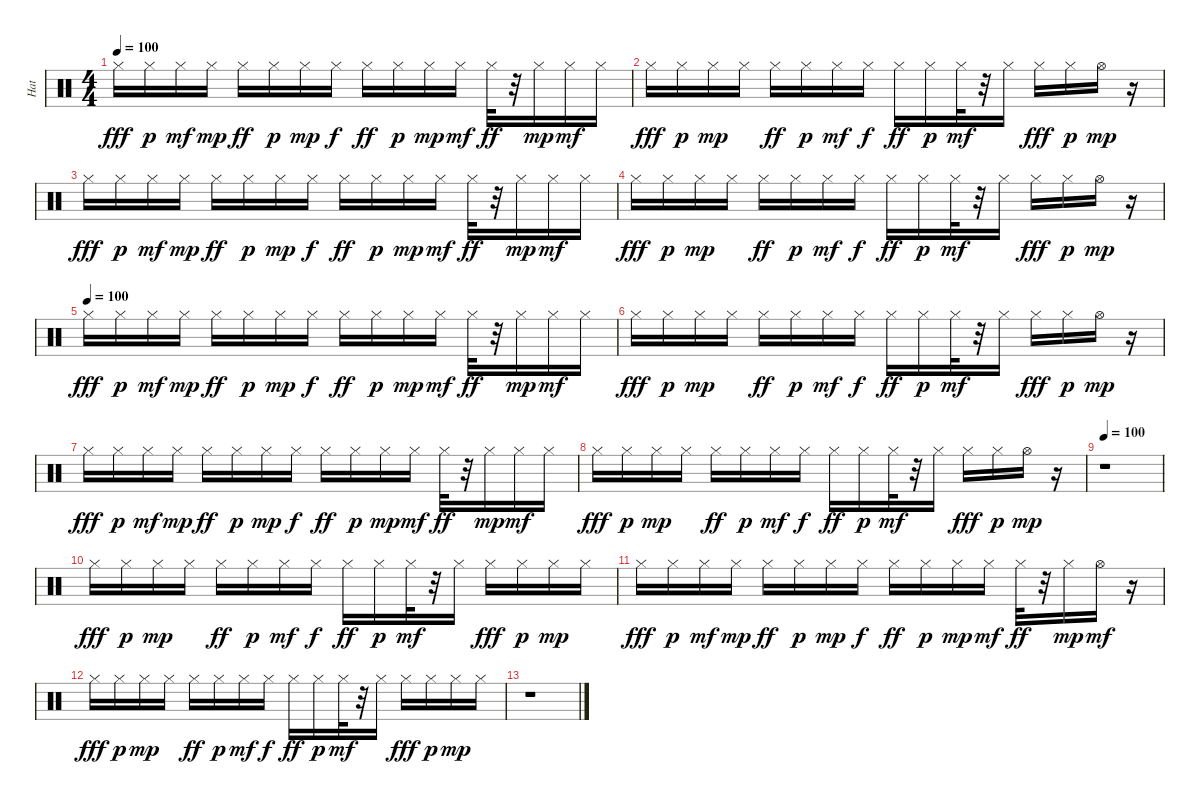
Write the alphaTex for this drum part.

\track ("Hat" "Hat") {instrument percussion}
\staff {score}
\articulation defaults
\ts (4 4)
\tempo 100
\clef neutral
\ks c "Hi-Hat (closed)".16{dy fff} "Hi-Hat (closed)".16{dy p} "Hi-Hat (closed)".16{dy mf} "Hi-Hat (closed)".16{dy mp} "Hi-Hat (closed)".16{dy ff} "Hi-Hat (closed)".16{dy p} "Hi-Hat (closed)".16{dy mp} "Hi-Hat (closed)".16{dy f} "Hi-Hat (closed)".16{dy ff} "Hi-Hat (closed)".16{dy p} "Hi-Hat (closed)".16{dy mp} "Hi-Hat (closed)".16{dy mf} "Hi-Hat (closed)".32{dy ff}
r.32 "Hi-Hat (closed)".16{dy mp} "Hi-Hat (closed)".16{dy mf} "Hi-Hat (closed)".16 |
"Hi-Hat (closed)".16{dy fff} "Hi-Hat (closed)".16{dy p} "Hi-Hat (closed)".16{dy mp} "Hi-Hat (closed)".16 "Hi-Hat (closed)".16{dy ff} "Hi-Hat (closed)".16{dy p} "Hi-Hat (closed)".16{dy mf} "Hi-Hat (closed)".16{dy f} "Hi-Hat (closed)".16{dy ff} "Hi-Hat (closed)".16{dy p} "Hi-Hat (closed)".32{dy mf} r.32 "Hi-Hat (closed)".16 "Hi-Hat (closed)".16{dy fff} "Hi-Hat (closed)".16{dy p} "Hi-Hat (open)".16{dy mp} r.16 |
"Hi-Hat (closed)".16{dy fff} "Hi-Hat (closed)".16{dy p} "Hi-Hat (closed)".16{dy mf} "Hi-Hat (closed)".16{dy mp} "Hi-Hat (closed)".16{dy ff} "Hi-Hat (closed)".16{dy p} "Hi-Hat (closed)".16{dy mp} "Hi-Hat (closed)".16{dy f} "Hi-Hat (closed)".16{dy ff} "Hi-Hat (closed)".16{dy p} "Hi-Hat (closed)".16{dy mp} "Hi-Hat (closed)".16{dy mf} "Hi-Hat (closed)".32{dy ff} r.32 "Hi-Hat (closed)".16{dy mp} "Hi-Hat (closed)".16{dy mf} "Hi-Hat (closed)".16 |
"Hi-Hat (closed)".16{dy fff} "Hi-Hat (closed)".16{dy p} "Hi-Hat (closed)".16{dy mp} "Hi-Hat (closed)".16 "Hi-Hat (closed)".16{dy ff} "Hi-Hat (closed)".16{dy p} "Hi-Hat (closed)".16{dy mf} "Hi-Hat (closed)".16{dy f} "Hi-Hat (closed)".16{dy ff} "Hi-Hat (closed)".16{dy p} "Hi-Hat (closed)".32{dy mf} r.32 "Hi-Hat (closed)".16 "Hi-Hat (closed)".16{dy fff} "Hi-Hat (closed)".16{dy p} "Hi-Hat (open)".16{dy mp} r.16 |
\tempo (100)
"Hi-Hat (closed)".16{dy fff} "Hi-Hat (closed)".16{dy p} "Hi-Hat (closed)".16{dy mf} "Hi-Hat (closed)".16{dy mp} "Hi-Hat (closed)".16{dy ff} "Hi-Hat (closed)".16{dy p} "Hi-Hat (closed)".16{dy mp} "Hi-Hat (closed)".16{dy f} "Hi-Hat (closed)".16{dy ff} "Hi-Hat (closed)".16{dy p} "Hi-Hat (closed)".16{dy mp} "Hi-Hat (closed)".16{dy mf} "Hi-Hat (closed)".32{dy ff} r.32 "Hi-Hat (closed)".16{dy mp} "Hi-Hat (closed)".16{dy mf} "Hi-Hat (closed)".16 |
"Hi-Hat (closed)".16{dy fff} "Hi-Hat (closed)".16{dy p} "Hi-Hat (closed)".16{dy mp} "Hi-Hat (closed)".16 "Hi-Hat (closed)".16{dy ff} "Hi-Hat (closed)".16{dy p} "Hi-Hat (closed)".16{dy mf} "Hi-Hat (closed)".16{dy f} "Hi-Hat (closed)".16{dy ff} "Hi-Hat (closed)".16{dy p} "Hi-Hat (closed)".32{dy mf} r.32 "Hi-Hat (closed)".16 "Hi-Hat (closed)".16{dy fff} "Hi-Hat (closed)".16{dy p} "Hi-Hat (open)".16{dy mp} r.16 |
"Hi-Hat (closed)".16{dy fff} "Hi-Hat (closed)".16{dy p} "Hi-Hat (closed)".16{dy mf} "Hi-Hat (closed)".16{dy mp} "Hi-Hat (closed)".16{dy ff} "Hi-Hat (closed)".16{dy p} "Hi-Hat (closed)".16{dy mp} "Hi-Hat (closed)".16{dy f} "Hi-Hat (closed)".16{dy ff} "Hi-Hat (closed)".16{dy p} "Hi-Hat (closed)".16{dy mp} "Hi-Hat (closed)".16{dy mf} "Hi-Hat (closed)".32{dy ff} r.32 "Hi-Hat (closed)".16{dy mp} "Hi-Hat (closed)".16{dy mf} "Hi-Hat (closed)".16 |
"Hi-Hat (closed)".16{dy fff} "Hi-Hat (closed)".16{dy p} "Hi-Hat (closed)".16{dy mp} "Hi-Hat (closed)".16 "Hi-Hat (closed)".16{dy ff} "Hi-Hat (closed)".16{dy p} "Hi-Hat (closed)".16{dy mf} "Hi-Hat (closed)".16{dy f} "Hi-Hat (closed)".16{dy ff} "Hi-Hat (closed)".16{dy p} "Hi-Hat (closed)".32{dy mf} r.32 "Hi-Hat (closed)".16 "Hi-Hat (closed)".16{dy fff} "Hi-Hat (closed)".16{dy p} "Hi-Hat (open)".16{dy mp} r.16 |
\tempo 100
r.1 |
"Hi-Hat (closed)".16{dy fff volume 12} "Hi-Hat (closed)".16{dy p volume 12} "Hi-Hat (closed)".16{dy mp volume 11} "Hi-Hat (closed)".16{volume 11} "Hi-Hat (closed)".16{dy ff volume 11} "Hi-Hat (closed)".16{dy p volume 11} "Hi-Hat (closed)".16{dy mf volume 11} "Hi-Hat (closed)".16{dy f volume 11} "Hi-Hat (closed)".16{dy ff volume 10} "Hi-Hat (closed)".16{dy p volume 10} "Hi-Hat (closed)".32{dy mf volume 10} r.32 "Hi-Hat (closed)".16{volume 10} "Hi-Hat (closed)".16{dy fff volume 10} "Hi-Hat (closed)".16{dy p volume 10} "Hi-Hat (closed)".16{dy mp volume 10} "Hi-Hat (closed)".16{volume 9} |
"Hi-Hat (closed)".16{dy fff volume 9} "Hi-Hat (closed)".16{dy p volume 9} "Hi-Hat (closed)".16{dy mf volume 9} "Hi-Hat (closed)".16{dy mp volume 9} "Hi-Hat (closed)".16{dy ff volume 9} "Hi-Hat (closed)".16{dy p volume 8} "Hi-Hat (closed)".16{dy mp volume 8} "Hi-Hat (closed)".16{dy f volume 8} "Hi-Hat (closed)".16{dy ff volume 8} "Hi-Hat (closed)".16{dy p volume 8} "Hi-Hat (closed)".16{dy mp volume 8} "Hi-Hat (closed)".16{dy mf volume 8} "Hi-Hat (closed)".32{dy ff volume 8} r.32 "Hi-Hat (closed)".16{dy mp volume 7} "Hi-Hat (open)".16{dy mf volume 7} r.16 |
"Hi-Hat (closed)".16{dy fff volume 7} "Hi-Hat (closed)".16{dy p volume 7} "Hi-Hat (closed)".16{dy mp volume 6} "Hi-Hat (closed)".16{volume 6} "Hi-Hat (closed)".16{dy ff volume 6} "Hi-Hat (closed)".16{dy p volume 6} "Hi-Hat (closed)".16{dy mf volume 6} "Hi-Hat (closed)".16{dy f volume 6} "Hi-Hat (closed)".16{dy ff volume 6} "Hi-Hat (closed)".16{dy p volume 6} "Hi-Hat (closed)".32{dy mf volume 5} r.32 "Hi-Hat (closed)".16{volume 5} "Hi-Hat (closed)".16{dy fff volume 5} "Hi-Hat (closed)".16{dy p volume 5} "Hi-Hat (closed)".16{dy mp volume 5} "Hi-Hat (closed)".16{volume 5} |
r.1
